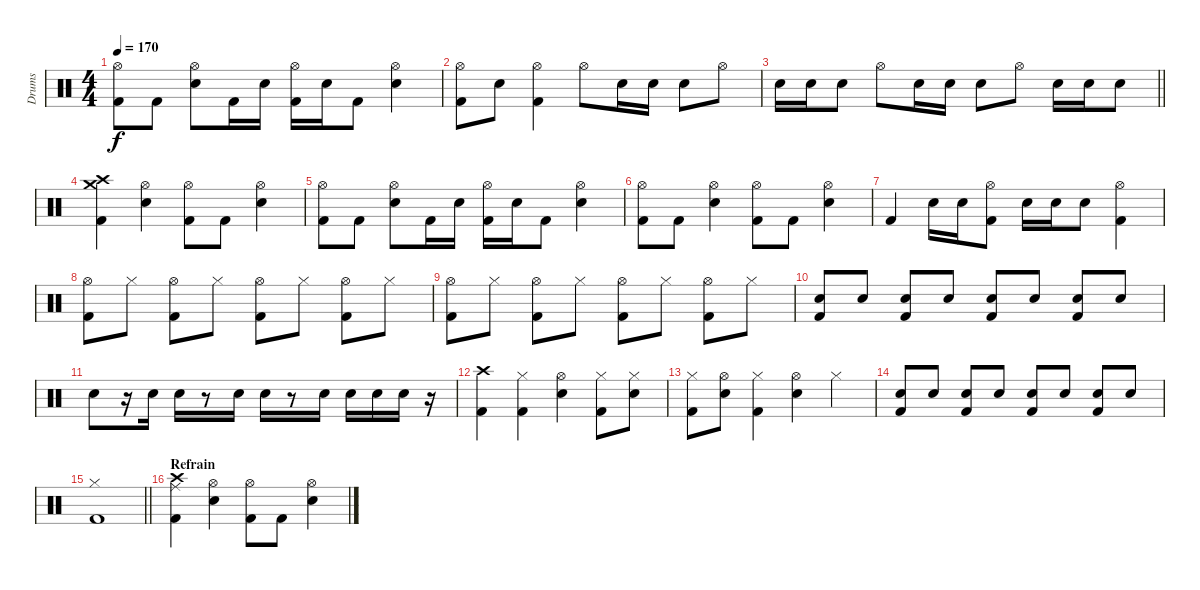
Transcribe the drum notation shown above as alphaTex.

\track ("Drums" "Drums") {instrument percussion}
\staff {score}
\articulation defaults
\ts (4 4)
\tempo 170
\clef neutral
\ks c
("Kick (hit) 2" "Hi-Hat (open)").8{dy f} "Kick (hit) 2".8 ("Electric Snare (hit)" "Hi-Hat (open)").8 "Kick (hit) 2".16 "Electric Snare (hit)".16 ("Kick (hit) 2" "Hi-Hat (open)").16 "Electric Snare (hit)".16 "Kick (hit) 2".8 ("Electric Snare (hit)" "Hi-Hat (open)").4 |
("Kick (hit) 2" "Hi-Hat (open)").8 "Electric Snare (hit)".8 ("Kick (hit) 2" "Hi-Hat (open)").4 "Hi-Hat (open)".8 "Electric Snare (hit)".16 "Electric Snare (hit)".16 "Electric Snare (hit)".8 "Hi-Hat (open)".8 |
\barLineRight lightlight "Electric Snare (hit)".16 "Electric Snare (hit)".16 "Electric Snare (hit)".8 "Hi-Hat (open)".8 "Electric Snare (hit)".16 "Electric Snare (hit)".16 "Electric Snare (hit)".8 "Hi-Hat (open)".8 "Electric Snare (hit)".16 "Electric Snare (hit)".16 "Electric Snare (hit)".8
|
("Kick (hit) 2" "Crash medium (hit)" "Crash high (hit)").4 ("Electric Snare (hit)" "Hi-Hat (open)").4 ("Kick (hit) 2" "Hi-Hat (open)").8 "Kick (hit) 2".8 ("Electric Snare (hit)" "Hi-Hat (open)").4 |
("Kick (hit) 2" "Hi-Hat (open)").8 "Kick (hit) 2".8 ("Electric Snare (hit)" "Hi-Hat (open)").8 "Kick (hit) 2".16 "Electric Snare (hit)".16 ("Kick (hit) 2" "Hi-Hat (open)").16 "Electric Snare (hit)".16 "Kick (hit) 2".8 ("Electric Snare (hit)" "Hi-Hat (open)").4 |
("Kick (hit) 2" "Hi-Hat (open)").8 "Kick (hit) 2".8 ("Electric Snare (hit)" "Hi-Hat (open)").4 ("Kick (hit) 2" "Hi-Hat (open)").8 "Kick (hit) 2".8 ("Electric Snare (hit)" "Hi-Hat (open)").4 |
"Kick (hit) 2".4 "Electric Snare (hit)".16 "Electric Snare (hit)".16 ("Kick (hit) 2" "Hi-Hat (open)").8 "Electric Snare (hit)".16 "Electric Snare (hit)".16 "Electric Snare (hit)".8 ("Kick (hit) 2" "Hi-Hat (open)").4 |
("Kick (hit) 2" "Hi-Hat (open)").8 "Hi-Hat (closed)".8 ("Kick (hit) 2" "Hi-Hat (open)").8 "Hi-Hat (closed)".8 ("Kick (hit) 2" "Hi-Hat (open)").8 "Hi-Hat (closed)".8 ("Kick (hit) 2" "Hi-Hat (open)").8 "Hi-Hat (closed)".8 |
("Kick (hit) 2" "Hi-Hat (open)").8 "Hi-Hat (closed)".8 ("Kick (hit) 2" "Hi-Hat (open)").8 "Hi-Hat (closed)".8 ("Kick (hit) 2" "Hi-Hat (open)").8 "Hi-Hat (closed)".8 ("Kick (hit) 2" "Hi-Hat (open)").8 "Hi-Hat (closed)".8 |
("Electric Snare (hit)" "Kick (hit) 2").8 "Electric Snare (hit)".8 ("Electric Snare (hit)" "Kick (hit) 2").8 "Electric Snare (hit)".8 ("Electric Snare (hit)" "Kick (hit) 2").8 "Electric Snare (hit)".8 ("Electric Snare (hit)" "Kick (hit) 2").8 "Electric Snare (hit)".8 |
"Electric Snare (hit)".8 r.16 "Electric Snare (hit)".16 "Electric Snare (hit)".16 r.8 "Electric Snare (hit)".16 "Electric Snare (hit)".16 r.8 "Electric Snare (hit)".16 "Electric Snare (hit)".16 "Electric Snare (hit)".16 "Electric Snare (hit)".16 r.16 |
("Kick (hit) 2" "Crash high (hit)").4 ("Kick (hit) 2" "Hi-Hat (closed)").4 ("Electric Snare (hit)" "Hi-Hat (open)").4 ("Kick (hit) 2" "Hi-Hat (closed)").8 ("Electric Snare (hit)" "Hi-Hat (closed)").8 |
("Kick (hit) 2" "Hi-Hat (closed)").8 ("Electric Snare (hit)" "Hi-Hat (open)").8 ("Kick (hit) 2" "Hi-Hat (closed)").4 ("Electric Snare (hit)" "Hi-Hat (open)").4 "Hi-Hat (closed)".4 |
("Electric Snare (hit)" "Kick (hit) 2").8 "Electric Snare (hit)".8 ("Electric Snare (hit)" "Kick (hit) 2").8 "Electric Snare (hit)".8 ("Electric Snare (hit)" "Kick (hit) 2").8 "Electric Snare (hit)".8 ("Electric Snare (hit)" "Kick (hit) 2").8 "Electric Snare (hit)".8 |
\barLineRight lightlight
("Kick (hit) 2" "Hi-Hat (closed)").1 |
\section ("" "Refrain")
("Kick (hit) 2" "Ride (middle)" "Crash high (hit)").4 ("Electric Snare (hit)" "Hi-Hat (open)").4 ("Kick (hit) 2" "Hi-Hat (open)").8 "Kick (hit) 2".8 ("Electric Snare (hit)" "Hi-Hat (open)").4
